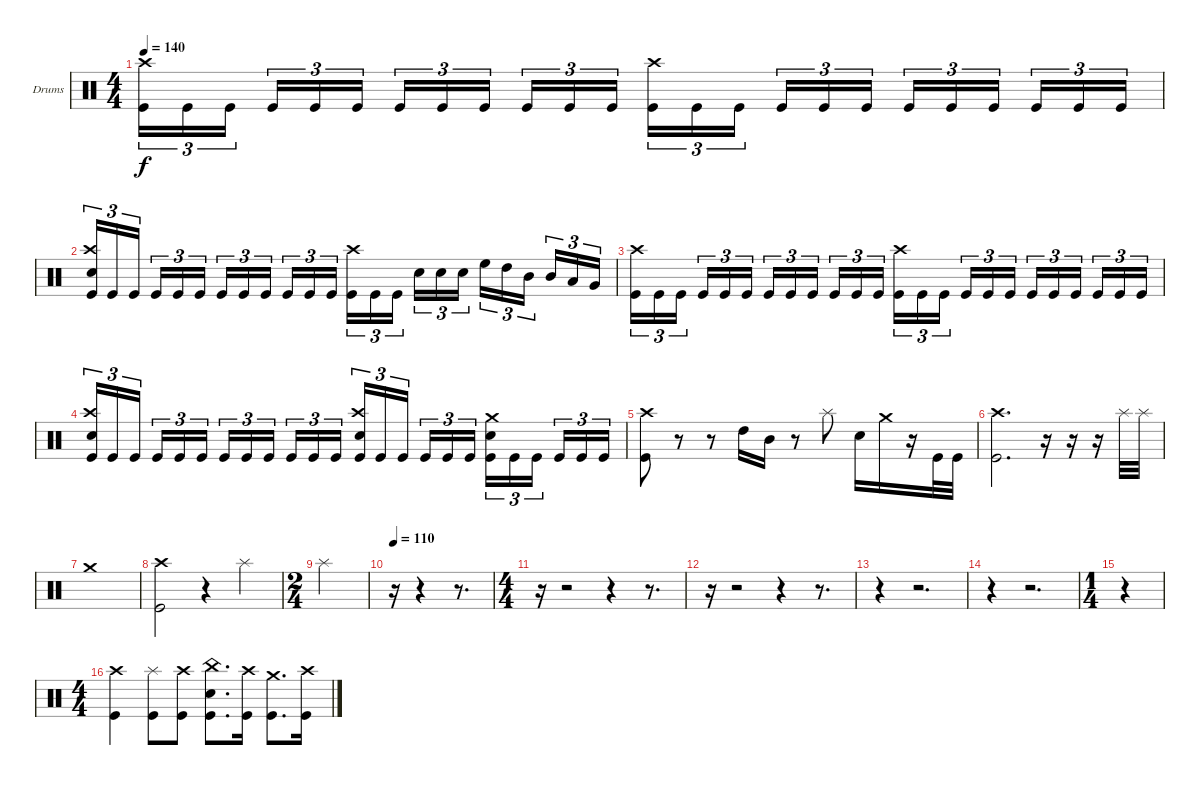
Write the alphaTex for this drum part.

\bracketExtendMode groupsimilarinstruments
\firstSystemTrackNameOrientation horizontal
\otherSystemsTrackNameOrientation horizontal
\track ("Drumkit" "Drums") {instrument percussion}
\staff {score}
\articulation defaults
\voice
\ts (4 4)
\tempo 140
\clef neutral
\ks c
("Kick (hit)" "Crash high (hit)").16{tu (3 2) dy f} "Kick (hit)".16{tu (3 2)} "Kick (hit)".16{tu (3 2)} "Kick (hit)".16{tu (3 2)} "Kick (hit)".16{tu (3 2)} "Kick (hit)".16{tu (3 2)} "Kick (hit)".16{tu (3 2)} "Kick (hit)".16{tu (3 2)} "Kick (hit)".16{tu (3 2)} "Kick (hit)".16{tu (3 2)} "Kick (hit)".16{tu (3 2)} "Kick (hit)".16{tu (3 2)} ("Kick (hit)" "Crash high (hit)").16{tu (3 2)} "Kick (hit)".16{tu (3 2)} "Kick (hit)".16{tu (3 2)} "Kick (hit)".16{tu (3 2)} "Kick (hit)".16{tu (3 2)} "Kick (hit)".16{tu (3 2)} "Kick (hit)".16{tu (3 2)} "Kick (hit)".16{tu (3 2)} "Kick (hit)".16{tu (3 2)} "Kick (hit)".16{tu (3 2)} "Kick (hit)".16{tu (3 2)} "Kick (hit)".16{tu (3 2)} |
("Kick (hit)" "Crash high (hit)" "Snare (hit) 2").16{tu (3 2)} "Kick (hit)".16{tu (3 2)} "Kick (hit)".16{tu (3 2)} "Kick (hit)".16{tu (3 2)} "Kick (hit)".16{tu (3 2)} "Kick (hit)".16{tu (3 2)} "Kick (hit)".16{tu (3 2)} "Kick (hit)".16{tu (3 2)} "Kick (hit)".16{tu (3 2)} "Kick (hit)".16{tu (3 2)} "Kick (hit)".16{tu (3 2)} "Kick (hit)".16{tu (3 2)} ("Kick (hit)" "Crash high (hit)").16{tu (3 2)} "Kick (hit)".16{tu (3 2)} "Kick (hit)".16{tu (3 2)} "Snare (hit) 2".16{tu (3 2)} "Snare (hit) 2".16{tu (3 2)} "Snare (hit) 2".16{tu (3 2)} "High Floor Tom (hit)".16{tu (3 2)} "High Tom (hit)".16{tu (3 2)} "Mid Tom (hit)".16{tu (3 2)} "Mid Tom (hit)".16{tu (3 2)} "Low Tom (hit)".16{tu (3 2)} "Very Low Tom (hit)".16{tu (3 2)} |
("Kick (hit)" "Crash high (hit)").16{tu (3 2)} "Kick (hit)".16{tu (3 2)} "Kick (hit)".16{tu (3 2)} "Kick (hit)".16{tu (3 2)} "Kick (hit)".16{tu (3 2)} "Kick (hit)".16{tu (3 2)} "Kick (hit)".16{tu (3 2)} "Kick (hit)".16{tu (3 2)} "Kick (hit)".16{tu (3 2)} "Kick (hit)".16{tu (3 2)} "Kick (hit)".16{tu (3 2)} "Kick (hit)".16{tu (3 2)} ("Kick (hit)" "Crash high (hit)").16{tu (3 2)} "Kick (hit)".16{tu (3 2)} "Kick (hit)".16{tu (3 2)} "Kick (hit)".16{tu (3 2)} "Kick (hit)".16{tu (3 2)} "Kick (hit)".16{tu (3 2)} "Kick (hit)".16{tu (3 2)} "Kick (hit)".16{tu (3 2)} "Kick (hit)".16{tu (3 2)} "Kick (hit)".16{tu (3 2)} "Kick (hit)".16{tu (3 2)} "Kick (hit)".16{tu (3 2)} |
("Kick (hit)" "Snare (hit) 2" "Crash high (hit)").16{tu (3 2)} "Kick (hit)".16{tu (3 2)} "Kick (hit)".16{tu (3 2)} "Kick (hit)".16{tu (3 2)} "Kick (hit)".16{tu (3 2)} "Kick (hit)".16{tu (3 2)} "Kick (hit)".16{tu (3 2)} "Kick (hit)".16{tu (3 2)} "Kick (hit)".16{tu (3 2)} "Kick (hit)".16{tu (3 2)} "Kick (hit)".16{tu (3 2)} "Kick (hit)".16{tu (3 2)} ("Kick (hit)" "Snare (hit) 2" "Crash high (hit)").16{tu (3 2)} "Kick (hit)".16{tu (3 2)} "Kick (hit)".16{tu (3 2)} "Kick (hit)".16{tu (3 2)} "Kick (hit)".16{tu (3 2)} "Kick (hit)".16{tu (3 2)} ("Kick (hit)" "Snare (hit) 2" "Crash medium (hit)").16{tu (3 2)} "Kick (hit)".16{tu (3 2)} "Kick (hit)".16{tu (3 2)} "Kick (hit)".16{tu (3 2)} "Kick (hit)".16{tu (3 2)} "Kick (hit)".16{tu (3 2)} |
("Crash high (hit)" "Kick (hit)").8 r.8 r.8 "High Tom (hit)".16 "Mid Tom (hit)".16 r.8 "Splash (hit)".8 "Snare (hit) 2".16 "Crash medium (hit)".16 r.16 "Kick (hit)".32 "Kick (hit)".32 |
("Crash high (hit)" "Kick (hit)").2{d} r.16 r.16 r.16 "Splash (hit)".32 "Splash (hit)".32 |
"Crash medium (hit)".1 |
("Kick (hit)" "Crash high (hit)").2 r.4 "Splash (hit)".4 |
\ts (2 4)
\beaming (8 2 2 2 2)
"Splash (hit)".2 |
\tempo 110
r.16 r.4 r.8{d} |
\ts (4 4)
\beaming (8 2 2 2 2)
r.16 r.2 r.4 r.8{d} |
r.16 r.2 r.4 r.8{d} |
r.4 r.2{d} |
r.4 r.2{d} |
\ts (1 4)
\beaming (8 2 2 2 2)
r.4 |
\ts (4 4)
\beaming (8 2 2 2 2)
("Kick (hit)" "Crash high (hit)").4 ("Splash (hit)" "Kick (hit)").8 ("Crash high (hit)" "Kick (hit)").8 ("China (hit)" "Snare (hit) 2" "Kick (hit)").8{d} ("Crash high (hit)" "Kick (hit)").16 ("Crash medium (hit)" "Kick (hit)").8{d} ("Crash high (hit)" "Kick (hit)").16
\voice
\clef neutral
\ottava regular
\simile none
\ks c
|
|
|
|
|
|
|
|
|
|
|
|
|
|
r.4{dy mf} |
